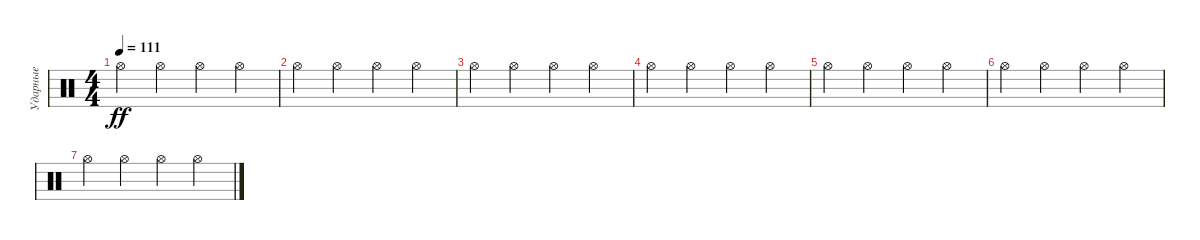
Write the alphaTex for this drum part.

\track ("Ударные" "Ударные") {instrument percussion}
\staff {score}
\articulation defaults
\ts (4 4)
\tempo 111
\clef neutral
\ks c "Hi-Hat (open)".4{dy ff} "Hi-Hat (open)".4 "Hi-Hat (open)".4 "Hi-Hat (open)".4
|
"Hi-Hat (open)".4 "Hi-Hat (open)".4 "Hi-Hat (open)".4 "Hi-Hat (open)".4 |
"Hi-Hat (open)".4 "Hi-Hat (open)".4 "Hi-Hat (open)".4 "Hi-Hat (open)".4 |
"Hi-Hat (open)".4 "Hi-Hat (open)".4 "Hi-Hat (open)".4 "Hi-Hat (open)".4 |
"Hi-Hat (open)".4 "Hi-Hat (open)".4 "Hi-Hat (open)".4 "Hi-Hat (open)".4 |
"Hi-Hat (open)".4 "Hi-Hat (open)".4 "Hi-Hat (open)".4 "Hi-Hat (open)".4 |
"Hi-Hat (open)".4 "Hi-Hat (open)".4 "Hi-Hat (open)".4 "Hi-Hat (open)".4
